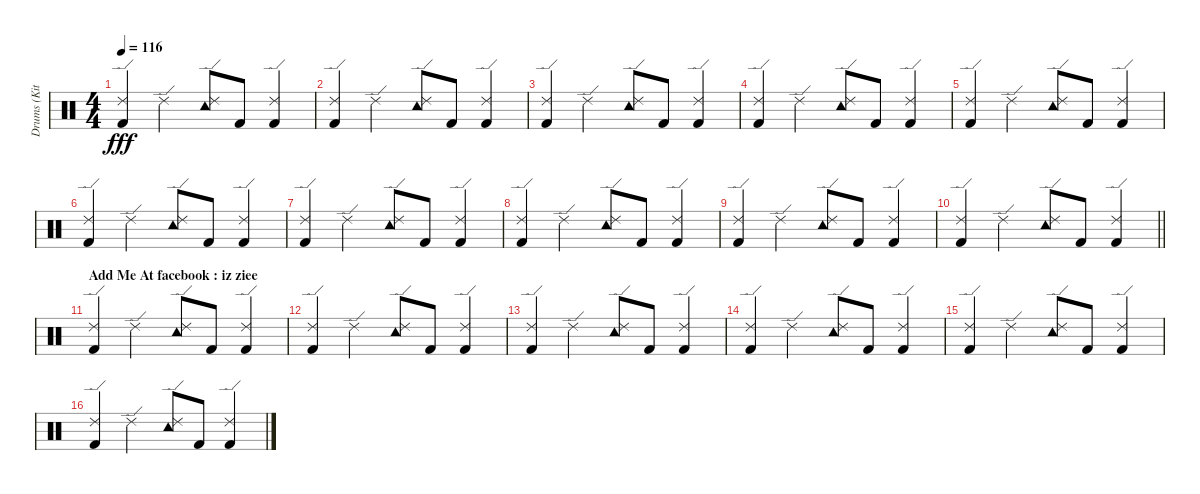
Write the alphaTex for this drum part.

\track ("Drums (Kit)" "Drums (Kit") {instrument percussion}
\staff {score}
\articulation defaults
\ts (4 4)
\tempo 116
\clef neutral
\ks c
("Kick (hit) 2" "Ride (edge) 2").4{dy fff} "Ride (edge) 2".4 ("Ride (edge) 2" "Tambourine (hit)").8 "Kick (hit) 2".8 ("Ride (edge) 2" "Kick (hit) 2").4 |
("Ride (edge) 2" "Kick (hit) 2").4 "Ride (edge) 2".4 ("Ride (edge) 2" "Tambourine (hit)").8 "Kick (hit) 2".8 ("Ride (edge) 2" "Kick (hit) 2").4 |
("Kick (hit) 2" "Ride (edge) 2").4 "Ride (edge) 2".4 ("Ride (edge) 2" "Tambourine (hit)").8 "Kick (hit) 2".8 ("Ride (edge) 2" "Kick (hit) 2").4 |
("Ride (edge) 2" "Kick (hit) 2").4 "Ride (edge) 2".4 ("Ride (edge) 2" "Tambourine (hit)").8 "Kick (hit) 2".8 ("Ride (edge) 2" "Kick (hit) 2").4 |
("Kick (hit) 2" "Ride (edge) 2").4 "Ride (edge) 2".4 ("Ride (edge) 2" "Tambourine (hit)").8 "Kick (hit) 2".8 ("Ride (edge) 2" "Kick (hit) 2").4 |
("Ride (edge) 2" "Kick (hit) 2").4 "Ride (edge) 2".4 ("Ride (edge) 2" "Tambourine (hit)").8 "Kick (hit) 2".8 ("Ride (edge) 2" "Kick (hit) 2").4 |
("Kick (hit) 2" "Ride (edge) 2").4 "Ride (edge) 2".4 ("Ride (edge) 2" "Tambourine (hit)").8 "Kick (hit) 2".8 ("Ride (edge) 2" "Kick (hit) 2").4 |
("Ride (edge) 2" "Kick (hit) 2").4 "Ride (edge) 2".4 ("Ride (edge) 2" "Tambourine (hit)").8 "Kick (hit) 2".8 ("Ride (edge) 2" "Kick (hit) 2").4 |
("Kick (hit) 2" "Ride (edge) 2").4 "Ride (edge) 2".4 ("Ride (edge) 2" "Tambourine (hit)").8 "Kick (hit) 2".8 ("Ride (edge) 2" "Kick (hit) 2").4 |
\barLineRight lightlight
("Ride (edge) 2" "Kick (hit) 2").4 "Ride (edge) 2".4 ("Ride (edge) 2" "Tambourine (hit)").8 "Kick (hit) 2".8 ("Ride (edge) 2" "Kick (hit) 2").4 |
\section ("" "Add Me At facebook : iz ziee")
("Kick (hit) 2" "Ride (edge) 2").4 "Ride (edge) 2".4 ("Ride (edge) 2" "Tambourine (hit)").8 "Kick (hit) 2".8 ("Ride (edge) 2" "Kick (hit) 2").4 |
("Ride (edge) 2" "Kick (hit) 2").4 "Ride (edge) 2".4 ("Ride (edge) 2" "Tambourine (hit)").8 "Kick (hit) 2".8 ("Ride (edge) 2" "Kick (hit) 2").4 |
("Kick (hit) 2" "Ride (edge) 2").4 "Ride (edge) 2".4 ("Ride (edge) 2" "Tambourine (hit)").8 "Kick (hit) 2".8 ("Ride (edge) 2" "Kick (hit) 2").4 |
("Ride (edge) 2" "Kick (hit) 2").4 "Ride (edge) 2".4 ("Ride (edge) 2" "Tambourine (hit)").8 "Kick (hit) 2".8 ("Ride (edge) 2" "Kick (hit) 2").4 |
("Kick (hit) 2" "Ride (edge) 2").4 "Ride (edge) 2".4 ("Ride (edge) 2" "Tambourine (hit)").8 "Kick (hit) 2".8 ("Ride (edge) 2" "Kick (hit) 2").4 |
("Ride (edge) 2" "Kick (hit) 2").4 "Ride (edge) 2".4 ("Ride (edge) 2" "Tambourine (hit)").8 "Kick (hit) 2".8 ("Ride (edge) 2" "Kick (hit) 2").4
